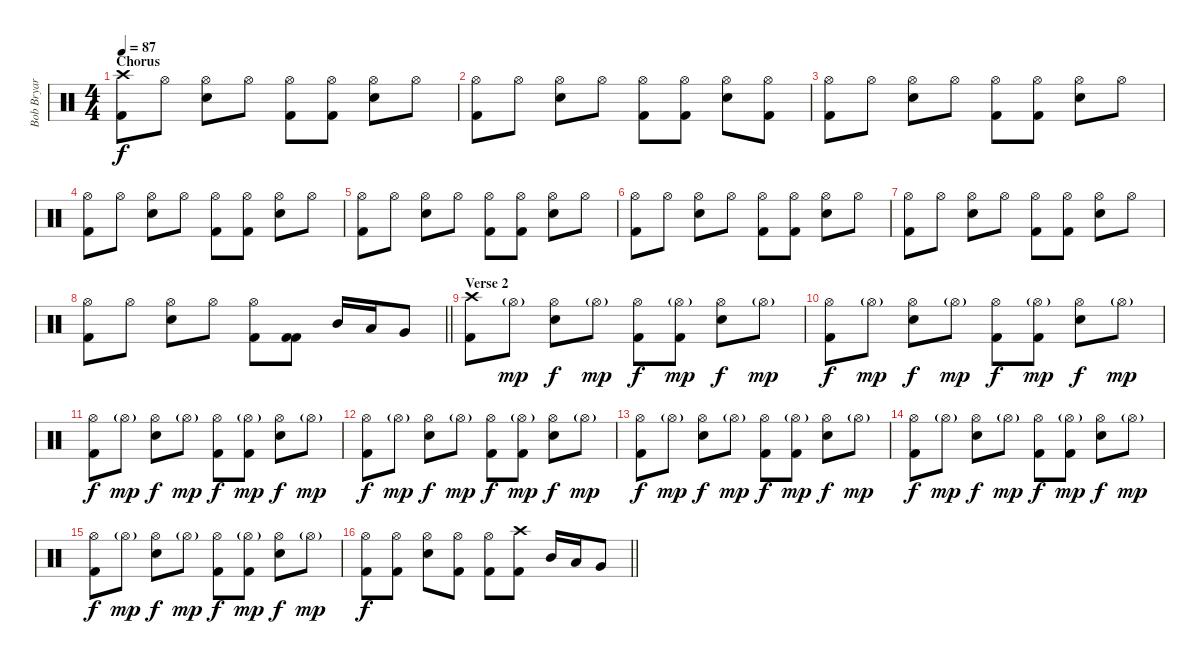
\track ("Bob Bryar" "Bob Bryar") {instrument percussion}
\staff {score}
\articulation defaults
\ts (4 4)
\section ("" "Chorus")
\tempo 87
\clef neutral
\ks c
("Crash high (hit)" "Kick (hit) 2").8{dy f} "Hi-Hat (open)".8 ("Hi-Hat (open)" "Electric Snare (hit)").8 "Hi-Hat (open)".8 ("Hi-Hat (open)" "Kick (hit) 2").8 ("Hi-Hat (open)" "Kick (hit) 2").8 ("Hi-Hat (open)" "Electric Snare (hit)").8 "Hi-Hat (open)".8 |
("Hi-Hat (open)" "Kick (hit) 2").8 "Hi-Hat (open)".8 ("Hi-Hat (open)" "Electric Snare (hit)").8 "Hi-Hat (open)".8 ("Hi-Hat (open)" "Kick (hit) 2").8 ("Hi-Hat (open)" "Kick (hit) 2").8 ("Hi-Hat (open)" "Electric Snare (hit)").8 ("Hi-Hat (open)" "Kick (hit) 2").8 |
("Hi-Hat (open)" "Kick (hit) 2").8 "Hi-Hat (open)".8 ("Hi-Hat (open)" "Electric Snare (hit)").8 "Hi-Hat (open)".8 ("Hi-Hat (open)" "Kick (hit) 2").8 ("Hi-Hat (open)" "Kick (hit) 2").8 ("Hi-Hat (open)" "Electric Snare (hit)").8 "Hi-Hat (open)".8 |
("Hi-Hat (open)" "Kick (hit) 2").8 "Hi-Hat (open)".8 ("Hi-Hat (open)" "Electric Snare (hit)").8 "Hi-Hat (open)".8 ("Hi-Hat (open)" "Kick (hit) 2").8 ("Hi-Hat (open)" "Kick (hit) 2").8 ("Hi-Hat (open)" "Electric Snare (hit)").8 "Hi-Hat (open)".8 |
("Hi-Hat (open)" "Kick (hit) 2").8 "Hi-Hat (open)".8 ("Hi-Hat (open)" "Electric Snare (hit)").8 "Hi-Hat (open)".8 ("Hi-Hat (open)" "Kick (hit) 2").8 ("Hi-Hat (open)" "Kick (hit) 2").8 ("Hi-Hat (open)" "Electric Snare (hit)").8 "Hi-Hat (open)".8 |
("Hi-Hat (open)" "Kick (hit) 2").8 "Hi-Hat (open)".8 ("Hi-Hat (open)" "Electric Snare (hit)").8 "Hi-Hat (open)".8 ("Hi-Hat (open)" "Kick (hit) 2").8 ("Hi-Hat (open)" "Kick (hit) 2").8 ("Hi-Hat (open)" "Electric Snare (hit)").8 "Hi-Hat (open)".8 |
("Hi-Hat (open)" "Kick (hit) 2").8 "Hi-Hat (open)".8 ("Hi-Hat (open)" "Electric Snare (hit)").8 "Hi-Hat (open)".8 ("Hi-Hat (open)" "Kick (hit) 2").8 ("Hi-Hat (open)" "Kick (hit) 2").8 ("Hi-Hat (open)" "Electric Snare (hit)").8 "Hi-Hat (open)".8 |
\barLineRight lightlight
("Hi-Hat (open)" "Kick (hit) 2").8 "Hi-Hat (open)".8 ("Hi-Hat (open)" "Electric Snare (hit)").8 "Hi-Hat (open)".8 ("Hi-Hat (open)" "Kick (hit) 2").8 ("Kick (hit) 2" "Kick (hit) 2").8 "Mid Tom (hit)".16 "Low Tom (hit)".16 "Very Low Tom (hit)".8 |
\section ("" "Verse 2")
("Crash high (hit)" "Kick (hit) 2").8 "Hi-Hat (open)"{g}.8{dy mp} ("Hi-Hat (open)" "Electric Snare (hit)").8{dy f} "Hi-Hat (open)"{g}.8{dy mp} ("Hi-Hat (open)" "Kick (hit) 2").8{dy f} ("Hi-Hat (open)"{g} "Kick (hit) 2").8{dy mp} ("Hi-Hat (open)" "Electric Snare (hit)").8{dy f} "Hi-Hat (open)"{g}.8{dy mp} |
("Hi-Hat (open)" "Kick (hit) 2").8{dy f} "Hi-Hat (open)"{g}.8{dy mp} ("Hi-Hat (open)" "Electric Snare (hit)").8{dy f} "Hi-Hat (open)"{g}.8{dy mp} ("Hi-Hat (open)" "Kick (hit) 2").8{dy f} ("Hi-Hat (open)"{g} "Kick (hit) 2").8{dy mp} ("Hi-Hat (open)" "Electric Snare (hit)").8{dy f} "Hi-Hat (open)"{g}.8{dy mp} |
("Hi-Hat (open)" "Kick (hit) 2").8{dy f} "Hi-Hat (open)"{g}.8{dy mp} ("Hi-Hat (open)" "Electric Snare (hit)").8{dy f} "Hi-Hat (open)"{g}.8{dy mp} ("Hi-Hat (open)" "Kick (hit) 2").8{dy f} ("Hi-Hat (open)"{g} "Kick (hit) 2").8{dy mp} ("Hi-Hat (open)" "Electric Snare (hit)").8{dy f} "Hi-Hat (open)"{g}.8{dy mp} |
("Hi-Hat (open)" "Kick (hit) 2").8{dy f} "Hi-Hat (open)"{g}.8{dy mp} ("Hi-Hat (open)" "Electric Snare (hit)").8{dy f} "Hi-Hat (open)"{g}.8{dy mp} ("Hi-Hat (open)" "Kick (hit) 2").8{dy f} ("Hi-Hat (open)"{g} "Kick (hit) 2").8{dy mp} ("Hi-Hat (open)" "Electric Snare (hit)").8{dy f} "Hi-Hat (open)"{g}.8{dy mp} |
("Hi-Hat (open)" "Kick (hit) 2").8{dy f} "Hi-Hat (open)"{g}.8{dy mp} ("Hi-Hat (open)" "Electric Snare (hit)").8{dy f} "Hi-Hat (open)"{g}.8{dy mp} ("Hi-Hat (open)" "Kick (hit) 2").8{dy f} ("Hi-Hat (open)"{g} "Kick (hit) 2").8{dy mp} ("Hi-Hat (open)" "Electric Snare (hit)").8{dy f} "Hi-Hat (open)"{g}.8{dy mp} |
("Hi-Hat (open)" "Kick (hit) 2").8{dy f} "Hi-Hat (open)"{g}.8{dy mp} ("Hi-Hat (open)" "Electric Snare (hit)").8{dy f} "Hi-Hat (open)"{g}.8{dy mp} ("Hi-Hat (open)" "Kick (hit) 2").8{dy f} ("Hi-Hat (open)"{g} "Kick (hit) 2").8{dy mp} ("Hi-Hat (open)" "Electric Snare (hit)").8{dy f} "Hi-Hat (open)"{g}.8{dy mp} |
("Hi-Hat (open)" "Kick (hit) 2").8{dy f} "Hi-Hat (open)"{g}.8{dy mp} ("Hi-Hat (open)" "Electric Snare (hit)").8{dy f} "Hi-Hat (open)"{g}.8{dy mp} ("Hi-Hat (open)" "Kick (hit) 2").8{dy f} ("Hi-Hat (open)"{g} "Kick (hit) 2").8{dy mp} ("Hi-Hat (open)" "Electric Snare (hit)").8{dy f} "Hi-Hat (open)"{g}.8{dy mp} |
\barLineRight lightlight
("Hi-Hat (open)" "Kick (hit) 2").8{dy f} ("Hi-Hat (open)" "Kick (hit) 2").8 ("Hi-Hat (open)" "Electric Snare (hit)").8 ("Hi-Hat (open)" "Kick (hit) 2").8 ("Hi-Hat (open)" "Kick (hit) 2").8 ("Crash high (hit)" "Kick (hit) 2").8 "Mid Tom (hit)".16 "Low Tom (hit)".16 "Very Low Tom (hit)".8
